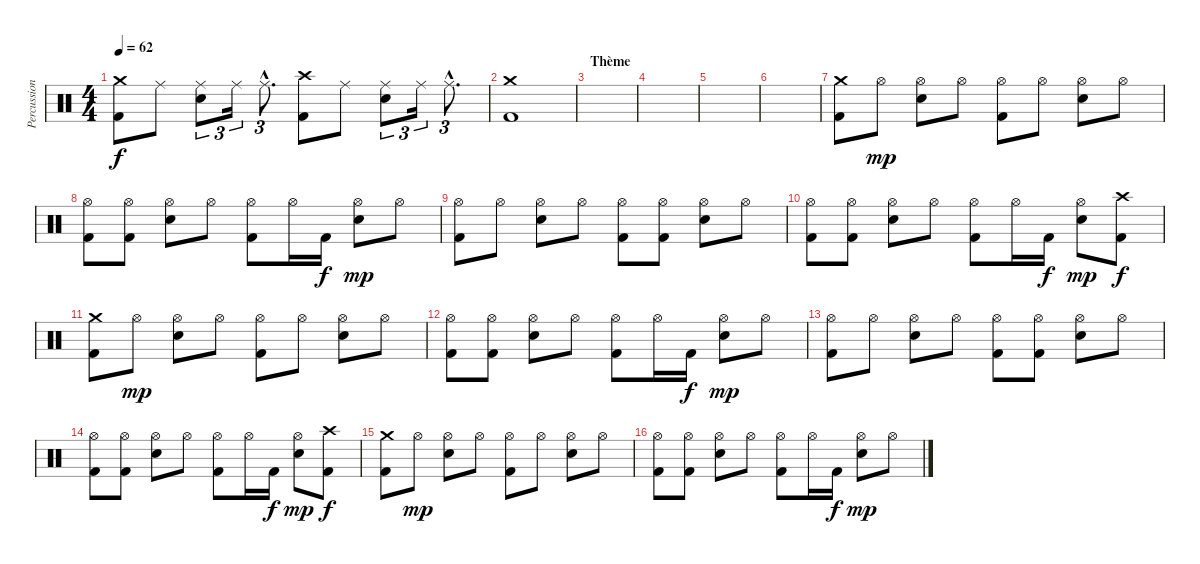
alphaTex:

\track ("Percussions" "Percussion") {instrument percussion}
\staff {score}
\articulation defaults
\ts (4 4)
\tempo 62
\clef neutral
\ks c
("Crash medium (hit)" "Kick (hit) 2").8{dy f} "Ride (middle)".8 ("Ride (middle)" "Snare (hit) 2").8{tu (3 2)} "Ride (middle)".16{tu (3 2)} "Ride (middle)"{hac}.8{d tu (3 2)} ("Crash high (hit)" "Kick (hit) 2").8 "Ride (middle)".8 ("Ride (middle)" "Snare (hit) 2").8{tu (3 2)} "Ride (middle)".16{tu (3 2)} "Ride (middle)"{hac}.8{d tu (3 2)} |
("Crash medium (hit)" "Kick (hit) 2").1 |
\section ("" "Thème")
|
|
|
|
("Crash medium (hit)" "Kick (hit) 2").8 "Hi-Hat (open)".8{dy mp} ("Hi-Hat (open)" "Snare (hit) 2").8 "Hi-Hat (open)".8 ("Hi-Hat (open)" "Kick (hit) 2").8 "Hi-Hat (open)".8 ("Hi-Hat (open)" "Snare (hit) 2").8 "Hi-Hat (open)".8 |
("Hi-Hat (open)" "Kick (hit) 2").8 ("Hi-Hat (open)" "Kick (hit) 2").8 ("Hi-Hat (open)" "Snare (hit) 2").8 "Hi-Hat (open)".8 ("Hi-Hat (open)" "Kick (hit) 2").8 "Hi-Hat (open)".16 "Kick (hit) 2".16{dy f} ("Hi-Hat (open)" "Snare (hit) 2").8{dy mp} "Hi-Hat (open)".8 |
("Hi-Hat (open)" "Kick (hit) 2").8 "Hi-Hat (open)".8 ("Hi-Hat (open)" "Snare (hit) 2").8 "Hi-Hat (open)".8 ("Hi-Hat (open)" "Kick (hit) 2").8 ("Hi-Hat (open)" "Kick (hit) 2").8 ("Hi-Hat (open)" "Snare (hit) 2").8 "Hi-Hat (open)".8 |
("Hi-Hat (open)" "Kick (hit) 2").8 ("Hi-Hat (open)" "Kick (hit) 2").8 ("Hi-Hat (open)" "Snare (hit) 2").8 "Hi-Hat (open)".8 ("Hi-Hat (open)" "Kick (hit) 2").8 "Hi-Hat (open)".16 "Kick (hit) 2".16{dy f} ("Hi-Hat (open)" "Snare (hit) 2").8{dy mp} ("Crash high (hit)" "Kick (hit) 2").8{dy f} |
("Crash medium (hit)" "Kick (hit) 2").8 "Hi-Hat (open)".8{dy mp} ("Hi-Hat (open)" "Snare (hit) 2").8 "Hi-Hat (open)".8 ("Hi-Hat (open)" "Kick (hit) 2").8 "Hi-Hat (open)".8 ("Hi-Hat (open)" "Snare (hit) 2").8 "Hi-Hat (open)".8 |
("Hi-Hat (open)" "Kick (hit) 2").8 ("Hi-Hat (open)" "Kick (hit) 2").8 ("Hi-Hat (open)" "Snare (hit) 2").8 "Hi-Hat (open)".8 ("Hi-Hat (open)" "Kick (hit) 2").8 "Hi-Hat (open)".16 "Kick (hit) 2".16{dy f} ("Hi-Hat (open)" "Snare (hit) 2").8{dy mp} "Hi-Hat (open)".8 |
("Hi-Hat (open)" "Kick (hit) 2").8 "Hi-Hat (open)".8 ("Hi-Hat (open)" "Snare (hit) 2").8 "Hi-Hat (open)".8 ("Hi-Hat (open)" "Kick (hit) 2").8 ("Hi-Hat (open)" "Kick (hit) 2").8 ("Hi-Hat (open)" "Snare (hit) 2").8 "Hi-Hat (open)".8 |
("Hi-Hat (open)" "Kick (hit) 2").8 ("Hi-Hat (open)" "Kick (hit) 2").8 ("Hi-Hat (open)" "Snare (hit) 2").8 "Hi-Hat (open)".8 ("Hi-Hat (open)" "Kick (hit) 2").8 "Hi-Hat (open)".16 "Kick (hit) 2".16{dy f} ("Hi-Hat (open)" "Snare (hit) 2").8{dy mp} ("Crash high (hit)" "Kick (hit) 2").8{dy f} |
("Crash medium (hit)" "Kick (hit) 2").8 "Hi-Hat (open)".8{dy mp} ("Hi-Hat (open)" "Snare (hit) 2").8 "Hi-Hat (open)".8 ("Hi-Hat (open)" "Kick (hit) 2").8 "Hi-Hat (open)".8 ("Hi-Hat (open)" "Snare (hit) 2").8 "Hi-Hat (open)".8 |
("Hi-Hat (open)" "Kick (hit) 2").8 ("Hi-Hat (open)" "Kick (hit) 2").8 ("Hi-Hat (open)" "Snare (hit) 2").8 "Hi-Hat (open)".8 ("Hi-Hat (open)" "Kick (hit) 2").8 "Hi-Hat (open)".16 "Kick (hit) 2".16{dy f} ("Hi-Hat (open)" "Snare (hit) 2").8{dy mp} "Hi-Hat (open)".8
